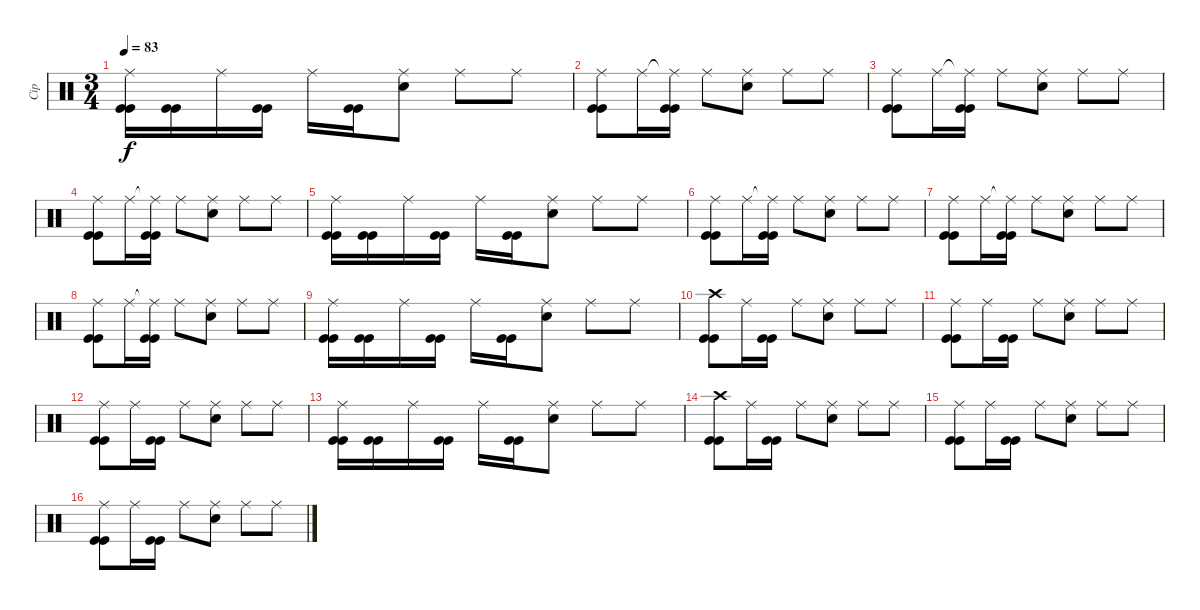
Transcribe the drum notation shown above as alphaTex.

\track ("Cip" "Cip") {instrument percussion}
\staff {score}
\articulation defaults
\ts (3 4)
\tempo 83
\clef neutral
\ks c
("Ride (middle)" "Kick (hit)" "Kick (hit)").16{dy f} ("Kick (hit)" "Kick (hit)").16 "Ride (middle)".16 ("Kick (hit)" "Kick (hit)").16 "Ride (middle)".16 ("Kick (hit)" "Kick (hit)").16 ("Ride (middle)" "Electric Snare (hit)").8 "Ride (middle)".8 "Ride (middle)".8 |
("Ride (middle)" "Kick (hit)" "Kick (hit)").8 "Ride (middle)".16 ("Ride (middle)"{t} "Kick (hit)" "Kick (hit)").16 "Ride (middle)".8 ("Ride (middle)" "Electric Snare (hit)").8 "Ride (middle)".8 "Ride (middle)".8 |
("Ride (middle)" "Kick (hit)" "Kick (hit)").8 "Ride (middle)".16 ("Ride (middle)"{t} "Kick (hit)" "Kick (hit)").16 "Ride (middle)".8 ("Ride (middle)" "Electric Snare (hit)").8 "Ride (middle)".8 "Ride (middle)".8 |
("Ride (middle)" "Kick (hit)" "Kick (hit)").8 "Ride (middle)".16 ("Ride (middle)"{t} "Kick (hit)" "Kick (hit)").16 "Ride (middle)".8 ("Ride (middle)" "Electric Snare (hit)").8 "Ride (middle)".8 "Ride (middle)".8 |
("Ride (middle)" "Kick (hit)" "Kick (hit)").16 ("Kick (hit)" "Kick (hit)").16 "Ride (middle)".16 ("Kick (hit)" "Kick (hit)").16 "Ride (middle)".16 ("Kick (hit)" "Kick (hit)").16 ("Ride (middle)" "Electric Snare (hit)").8 "Ride (middle)".8 "Ride (middle)".8 |
("Ride (middle)" "Kick (hit)" "Kick (hit)").8 "Ride (middle)".16 ("Ride (middle)"{t} "Kick (hit)" "Kick (hit)").16 "Ride (middle)".8 ("Ride (middle)" "Electric Snare (hit)").8 "Ride (middle)".8 "Ride (middle)".8 |
("Ride (middle)" "Kick (hit)" "Kick (hit)").8 "Ride (middle)".16 ("Ride (middle)"{t} "Kick (hit)" "Kick (hit)").16 "Ride (middle)".8 ("Ride (middle)" "Electric Snare (hit)").8 "Ride (middle)".8 "Ride (middle)".8 |
("Ride (middle)" "Kick (hit)" "Kick (hit)").8 "Ride (middle)".16 ("Ride (middle)"{t} "Kick (hit)" "Kick (hit)").16 "Ride (middle)".8 ("Ride (middle)" "Electric Snare (hit)").8 "Ride (middle)".8 "Ride (middle)".8 |
("Ride (middle)" "Kick (hit)" "Kick (hit)").16 ("Kick (hit)" "Kick (hit)").16 "Ride (middle)".16 ("Kick (hit)" "Kick (hit)").16 "Ride (middle)".16 ("Kick (hit)" "Kick (hit)").16 ("Ride (middle)" "Electric Snare (hit)").8 "Ride (middle)".8 "Ride (middle)".8 |
("Crash high (hit)" "Kick (hit)" "Kick (hit)").8 "Ride (middle)".16 ("Kick (hit)" "Kick (hit)").16 "Ride (middle)".8 ("Ride (middle)" "Electric Snare (hit)").8 "Ride (middle)".8 "Ride (middle)".8 |
("Ride (middle)" "Kick (hit)" "Kick (hit)").8 "Ride (middle)".16 ("Kick (hit)" "Kick (hit)").16 "Ride (middle)".8 ("Ride (middle)" "Electric Snare (hit)").8 "Ride (middle)".8 "Ride (middle)".8 |
("Ride (middle)" "Kick (hit)" "Kick (hit)").8 "Ride (middle)".16 ("Kick (hit)" "Kick (hit)").16 "Ride (middle)".8 ("Ride (middle)" "Electric Snare (hit)").8 "Ride (middle)".8 "Ride (middle)".8 |
("Ride (middle)" "Kick (hit)" "Kick (hit)").16 ("Kick (hit)" "Kick (hit)").16 "Ride (middle)".16 ("Kick (hit)" "Kick (hit)").16 "Ride (middle)".16 ("Kick (hit)" "Kick (hit)").16 ("Ride (middle)" "Electric Snare (hit)").8 "Ride (middle)".8 "Ride (middle)".8 |
("Crash high (hit)" "Kick (hit)" "Kick (hit)").8 "Ride (middle)".16 ("Kick (hit)" "Kick (hit)").16 "Ride (middle)".8 ("Ride (middle)" "Electric Snare (hit)").8 "Ride (middle)".8 "Ride (middle)".8 |
("Ride (middle)" "Kick (hit)" "Kick (hit)").8 "Ride (middle)".16 ("Kick (hit)" "Kick (hit)").16 "Ride (middle)".8 ("Ride (middle)" "Electric Snare (hit)").8 "Ride (middle)".8 "Ride (middle)".8 |
("Ride (middle)" "Kick (hit)" "Kick (hit)").8 "Ride (middle)".16 ("Kick (hit)" "Kick (hit)").16 "Ride (middle)".8 ("Ride (middle)" "Electric Snare (hit)").8 "Ride (middle)".8 "Ride (middle)".8
